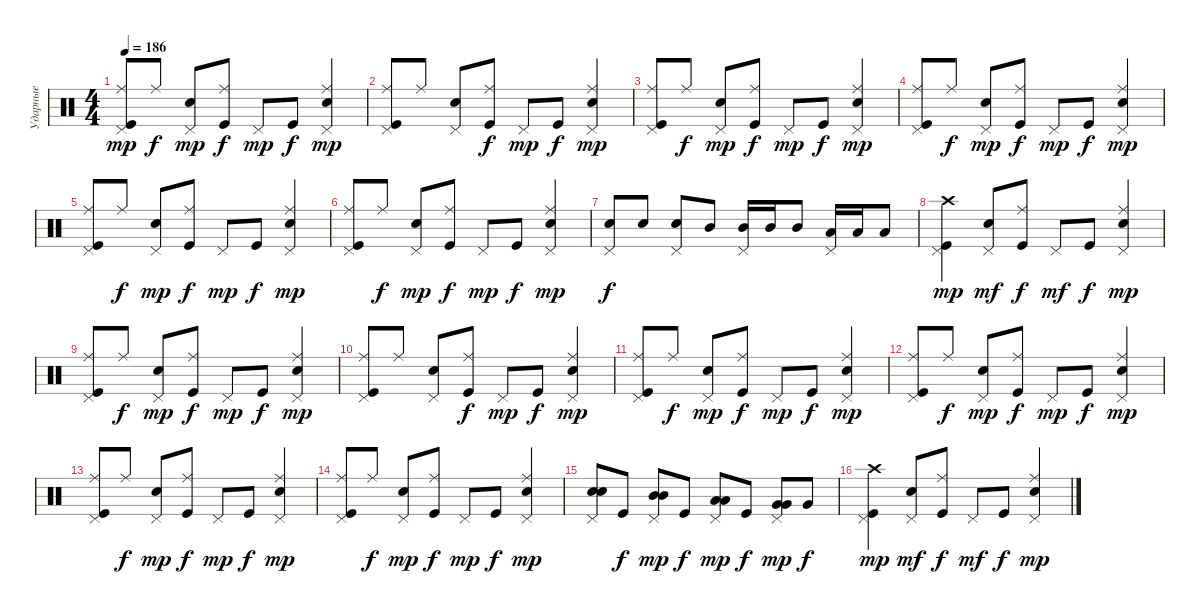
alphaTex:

\track ("Ударные" "Ударные") {instrument percussion}
\staff {score}
\articulation defaults
\ts (4 4)
\tempo 186
\clef neutral
\ks aminor
("Pedal Hi-Hat (hit)" "Ride (middle)" "Kick (hit)").8{dy mp} "Ride (middle)".8{dy f} ("Snare (hit) 2" "Pedal Hi-Hat (hit)").8{dy mp} ("Kick (hit)" "Ride (middle)").8{dy f} "Pedal Hi-Hat (hit)".8{dy mp} "Kick (hit)".8{dy f} ("Snare (hit) 2" "Ride (middle)" "Pedal Hi-Hat (hit)").4{dy mp} |
("Pedal Hi-Hat (hit)" "Ride (middle)" "Kick (hit)").8 "Ride (middle)".8 ("Snare (hit) 2" "Pedal Hi-Hat (hit)").8 ("Kick (hit)" "Ride (middle)").8{dy f} "Pedal Hi-Hat (hit)".8{dy mp} "Kick (hit)".8{dy f} ("Snare (hit) 2" "Ride (middle)" "Pedal Hi-Hat (hit)").4{dy mp} |
("Pedal Hi-Hat (hit)" "Ride (middle)" "Kick (hit)").8 "Ride (middle)".8{dy f} ("Snare (hit) 2" "Pedal Hi-Hat (hit)").8{dy mp} ("Kick (hit)" "Ride (middle)").8{dy f} "Pedal Hi-Hat (hit)".8{dy mp} "Kick (hit)".8{dy f} ("Snare (hit) 2" "Ride (middle)" "Pedal Hi-Hat (hit)").4{dy mp} |
("Pedal Hi-Hat (hit)" "Ride (middle)" "Kick (hit)").8 "Ride (middle)".8{dy f} ("Snare (hit) 2" "Pedal Hi-Hat (hit)").8{dy mp} ("Kick (hit)" "Ride (middle)").8{dy f} "Pedal Hi-Hat (hit)".8{dy mp} "Kick (hit)".8{dy f} ("Snare (hit) 2" "Ride (middle)" "Pedal Hi-Hat (hit)").4{dy mp} |
("Pedal Hi-Hat (hit)" "Ride (middle)" "Kick (hit)").8 "Ride (middle)".8{dy f} ("Snare (hit) 2" "Pedal Hi-Hat (hit)").8{dy mp} ("Kick (hit)" "Ride (middle)").8{dy f} "Pedal Hi-Hat (hit)".8{dy mp} "Kick (hit)".8{dy f} ("Snare (hit) 2" "Ride (middle)" "Pedal Hi-Hat (hit)").4{dy mp} |
("Pedal Hi-Hat (hit)" "Ride (middle)" "Kick (hit)").8 "Ride (middle)".8{dy f} ("Snare (hit) 2" "Pedal Hi-Hat (hit)").8{dy mp} ("Kick (hit)" "Ride (middle)").8{dy f} "Pedal Hi-Hat (hit)".8{dy mp} "Kick (hit)".8{dy f} ("Snare (hit) 2" "Ride (middle)" "Pedal Hi-Hat (hit)").4{dy mp} |
("Snare (hit) 2" "Pedal Hi-Hat (hit)").8{dy f} "Snare (hit) 2".8 ("Snare (hit) 2" "Pedal Hi-Hat (hit)").8 "Mid Tom (hit)".8 ("Mid Tom (hit)" "Pedal Hi-Hat (hit)").16 "Mid Tom (hit)".16 "Mid Tom (hit)".8 ("Low Tom (hit)" "Pedal Hi-Hat (hit)").16 "Low Tom (hit)".16 "Low Tom (hit)".8 |
("Kick (hit)" "Crash high (hit)" "Pedal Hi-Hat (hit)").4{dy mp} ("Snare (hit) 2" "Pedal Hi-Hat (hit)").8{dy mf} ("Kick (hit)" "Ride (middle)").8{dy f} "Pedal Hi-Hat (hit)".8{dy mf} "Kick (hit)".8{dy f} ("Snare (hit) 2" "Ride (middle)" "Pedal Hi-Hat (hit)").4{dy mp} |
("Pedal Hi-Hat (hit)" "Ride (middle)" "Kick (hit)").8 "Ride (middle)".8{dy f} ("Snare (hit) 2" "Pedal Hi-Hat (hit)").8{dy mp} ("Kick (hit)" "Ride (middle)").8{dy f} "Pedal Hi-Hat (hit)".8{dy mp} "Kick (hit)".8{dy f} ("Snare (hit) 2" "Ride (middle)" "Pedal Hi-Hat (hit)").4{dy mp} |
("Pedal Hi-Hat (hit)" "Ride (middle)" "Kick (hit)").8 "Ride (middle)".8 ("Snare (hit) 2" "Pedal Hi-Hat (hit)").8 ("Kick (hit)" "Ride (middle)").8{dy f} "Pedal Hi-Hat (hit)".8{dy mp} "Kick (hit)".8{dy f} ("Snare (hit) 2" "Ride (middle)" "Pedal Hi-Hat (hit)").4{dy mp} |
("Pedal Hi-Hat (hit)" "Ride (middle)" "Kick (hit)").8 "Ride (middle)".8{dy f} ("Snare (hit) 2" "Pedal Hi-Hat (hit)").8{dy mp} ("Kick (hit)" "Ride (middle)").8{dy f} "Pedal Hi-Hat (hit)".8{dy mp} "Kick (hit)".8{dy f} ("Snare (hit) 2" "Ride (middle)" "Pedal Hi-Hat (hit)").4{dy mp} |
("Pedal Hi-Hat (hit)" "Ride (middle)" "Kick (hit)").8 "Ride (middle)".8{dy f} ("Snare (hit) 2" "Pedal Hi-Hat (hit)").8{dy mp} ("Kick (hit)" "Ride (middle)").8{dy f} "Pedal Hi-Hat (hit)".8{dy mp} "Kick (hit)".8{dy f} ("Snare (hit) 2" "Ride (middle)" "Pedal Hi-Hat (hit)").4{dy mp} |
("Pedal Hi-Hat (hit)" "Ride (middle)" "Kick (hit)").8 "Ride (middle)".8{dy f} ("Snare (hit) 2" "Pedal Hi-Hat (hit)").8{dy mp} ("Kick (hit)" "Ride (middle)").8{dy f} "Pedal Hi-Hat (hit)".8{dy mp} "Kick (hit)".8{dy f} ("Snare (hit) 2" "Ride (middle)" "Pedal Hi-Hat (hit)").4{dy mp} |
("Pedal Hi-Hat (hit)" "Ride (middle)" "Kick (hit)").8 "Ride (middle)".8{dy f} ("Snare (hit) 2" "Pedal Hi-Hat (hit)").8{dy mp} ("Kick (hit)" "Ride (middle)").8{dy f} "Pedal Hi-Hat (hit)".8{dy mp} "Kick (hit)".8{dy f} ("Snare (hit) 2" "Ride (middle)" "Pedal Hi-Hat (hit)").4{dy mp} |
("Snare (hit) 2" "Snare (hit) 2" "Pedal Hi-Hat (hit)").8{bd 240} "Kick (hit)".8{dy f} ("Pedal Hi-Hat (hit)" "Mid Tom (hit)" "Mid Tom (hit)").8{bd 480 dy mp} "Kick (hit)".8{dy f} ("Low Tom (hit)" "Low Tom (hit)" "Pedal Hi-Hat (hit)").8{bd 480 dy mp} "Kick (hit)".8{dy f} ("Very Low Tom (hit)" "Pedal Hi-Hat (hit)" "Very Low Tom (hit)").8{dy mp} "Very Low Tom (hit)".8{dy f} |
("Kick (hit)" "Crash high (hit)" "Pedal Hi-Hat (hit)").4{dy mp} ("Snare (hit) 2" "Pedal Hi-Hat (hit)").8{dy mf} ("Kick (hit)" "Ride (middle)").8{dy f} "Pedal Hi-Hat (hit)".8{dy mf} "Kick (hit)".8{dy f} ("Snare (hit) 2" "Ride (middle)" "Pedal Hi-Hat (hit)").4{dy mp}
